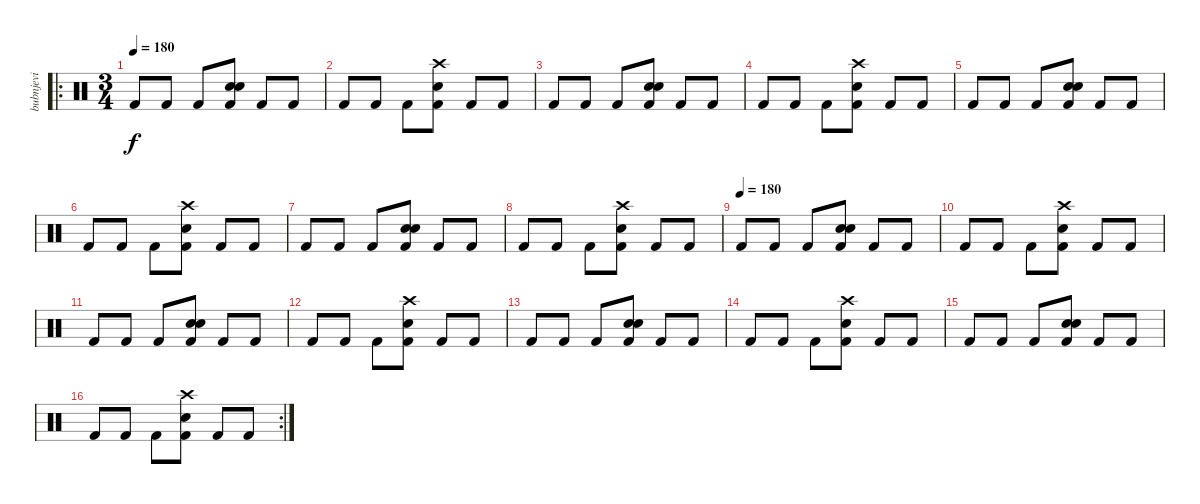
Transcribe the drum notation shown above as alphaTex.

\track ("bubnjevi" "bubnjevi") {instrument percussion}
\staff {score}
\articulation defaults
\ro
\ts (3 4)
\tempo 180
\clef neutral
\ks c "Kick (hit) 2".8{dy f} "Kick (hit) 2".8 "Kick (hit) 2".8
("Electric Snare (hit)" "Electric Snare (hit)" "Kick (hit) 2").8 "Kick (hit) 2".8 "Kick (hit) 2".8 |
"Kick (hit) 2".8 "Kick (hit) 2".8 "Kick (hit) 2".8 ("Crash high (hit)" "Electric Snare (hit)" "Kick (hit) 2").8 "Kick (hit) 2".8 "Kick (hit) 2".8 |
"Kick (hit) 2".8 "Kick (hit) 2".8 "Kick (hit) 2".8 ("Electric Snare (hit)" "Electric Snare (hit)" "Kick (hit) 2").8 "Kick (hit) 2".8 "Kick (hit) 2".8 |
"Kick (hit) 2".8 "Kick (hit) 2".8 "Kick (hit) 2".8 ("Crash high (hit)" "Electric Snare (hit)" "Kick (hit) 2").8 "Kick (hit) 2".8 "Kick (hit) 2".8 |
"Kick (hit) 2".8 "Kick (hit) 2".8 "Kick (hit) 2".8 ("Electric Snare (hit)" "Electric Snare (hit)" "Kick (hit) 2").8 "Kick (hit) 2".8 "Kick (hit) 2".8 |
"Kick (hit) 2".8 "Kick (hit) 2".8 "Kick (hit) 2".8 ("Crash high (hit)" "Electric Snare (hit)" "Kick (hit) 2").8 "Kick (hit) 2".8 "Kick (hit) 2".8 |
"Kick (hit) 2".8 "Kick (hit) 2".8 "Kick (hit) 2".8 ("Electric Snare (hit)" "Electric Snare (hit)" "Kick (hit) 2").8 "Kick (hit) 2".8 "Kick (hit) 2".8 |
"Kick (hit) 2".8 "Kick (hit) 2".8 "Kick (hit) 2".8 ("Crash high (hit)" "Electric Snare (hit)" "Kick (hit) 2").8 "Kick (hit) 2".8 "Kick (hit) 2".8 |
\tempo (180)
"Kick (hit) 2".8 "Kick (hit) 2".8 "Kick (hit) 2".8 ("Electric Snare (hit)" "Electric Snare (hit)" "Kick (hit) 2").8 "Kick (hit) 2".8 "Kick (hit) 2".8 |
"Kick (hit) 2".8 "Kick (hit) 2".8 "Kick (hit) 2".8 ("Crash high (hit)" "Electric Snare (hit)" "Kick (hit) 2").8 "Kick (hit) 2".8 "Kick (hit) 2".8 |
"Kick (hit) 2".8 "Kick (hit) 2".8 "Kick (hit) 2".8 ("Electric Snare (hit)" "Electric Snare (hit)" "Kick (hit) 2").8 "Kick (hit) 2".8 "Kick (hit) 2".8 |
"Kick (hit) 2".8 "Kick (hit) 2".8 "Kick (hit) 2".8 ("Crash high (hit)" "Electric Snare (hit)" "Kick (hit) 2").8 "Kick (hit) 2".8 "Kick (hit) 2".8 |
"Kick (hit) 2".8 "Kick (hit) 2".8 "Kick (hit) 2".8 ("Electric Snare (hit)" "Electric Snare (hit)" "Kick (hit) 2").8 "Kick (hit) 2".8 "Kick (hit) 2".8 |
"Kick (hit) 2".8 "Kick (hit) 2".8 "Kick (hit) 2".8 ("Crash high (hit)" "Electric Snare (hit)" "Kick (hit) 2").8 "Kick (hit) 2".8 "Kick (hit) 2".8 |
"Kick (hit) 2".8 "Kick (hit) 2".8 "Kick (hit) 2".8 ("Electric Snare (hit)" "Electric Snare (hit)" "Kick (hit) 2").8 "Kick (hit) 2".8 "Kick (hit) 2".8 |
\rc 2 "Kick (hit) 2".8 "Kick (hit) 2".8 "Kick (hit) 2".8
("Crash high (hit)" "Electric Snare (hit)" "Kick (hit) 2").8 "Kick (hit) 2".8 "Kick (hit) 2".8
